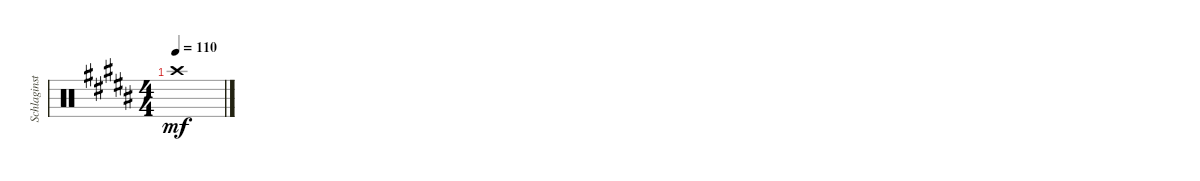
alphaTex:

\track ("Schlaginstrumente - Auswahl" "Schlaginst") {instrument percussion}
\staff {score}
\articulation defaults
\ts (4 4)
\tempo 110
\clef neutral
\ks b "Crash high (hit)".1{dy mf}
